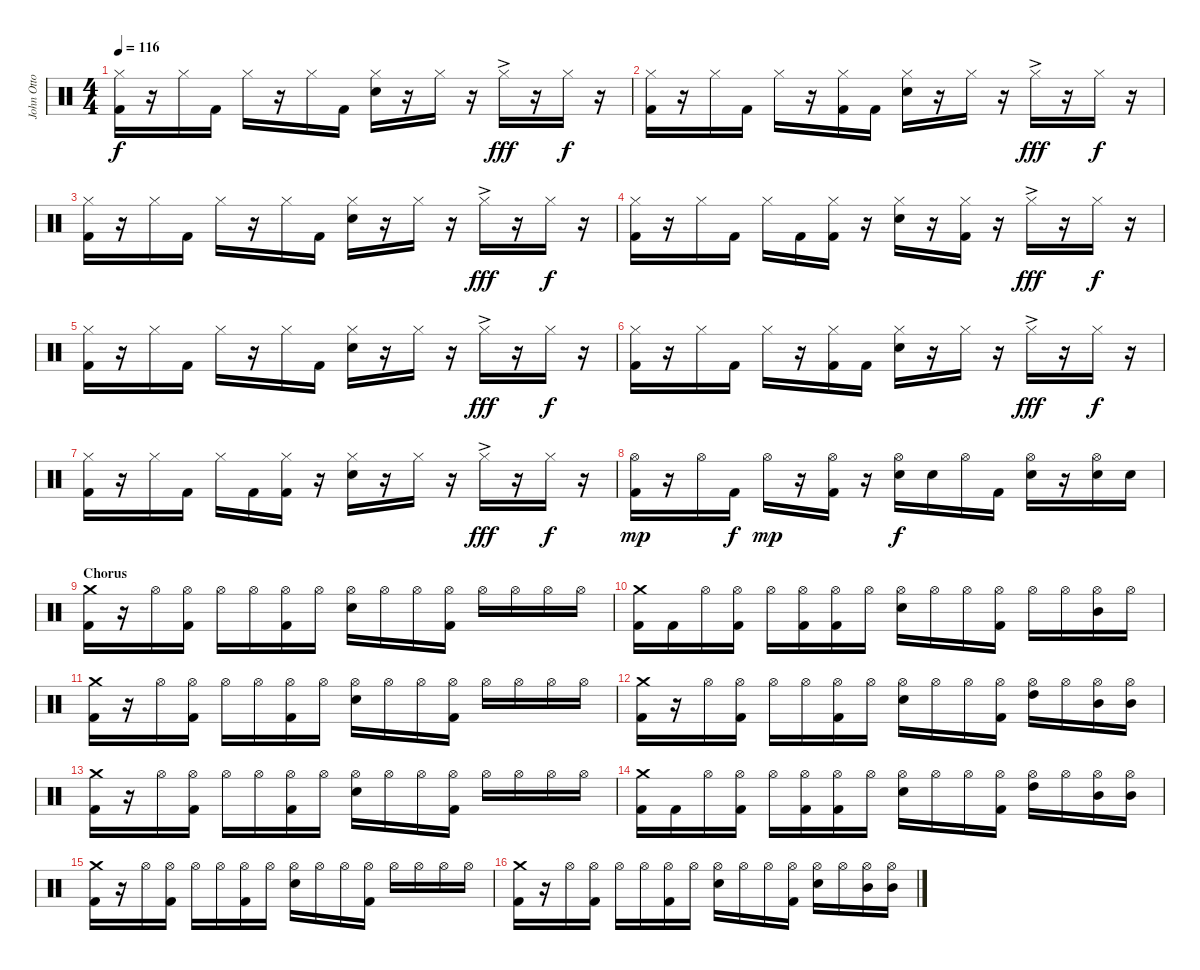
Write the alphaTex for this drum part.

\track ("John Otto - Drums" "John Otto ") {instrument percussion}
\staff {score}
\articulation defaults
\ts (4 4)
\tempo 116
\clef neutral
\ks c
("Hi-Hat (closed)" "Kick (hit) 2").16{dy f} r.16 "Hi-Hat (closed)".16 "Kick (hit) 2".16 "Hi-Hat (closed)".16 r.16 "Hi-Hat (closed)".16 "Kick (hit) 2".16 ("Hi-Hat (closed)" "Electric Snare (hit)").16 r.16 "Hi-Hat (closed)".16 r.16 "Hi-Hat (closed)"{ac}.16{dy fff} r.16 "Hi-Hat (closed)".16{dy f} r.16 |
("Hi-Hat (closed)" "Kick (hit) 2").16 r.16 "Hi-Hat (closed)".16 "Kick (hit) 2".16 "Hi-Hat (closed)".16 r.16 ("Hi-Hat (closed)" "Kick (hit) 2").16 "Kick (hit) 2".16 ("Hi-Hat (closed)" "Electric Snare (hit)").16 r.16 "Hi-Hat (closed)".16 r.16 "Hi-Hat (closed)"{ac}.16{dy fff} r.16 "Hi-Hat (closed)".16{dy f} r.16 |
("Hi-Hat (closed)" "Kick (hit) 2").16 r.16 "Hi-Hat (closed)".16 "Kick (hit) 2".16 "Hi-Hat (closed)".16 r.16 "Hi-Hat (closed)".16 "Kick (hit) 2".16 ("Hi-Hat (closed)" "Electric Snare (hit)").16 r.16 "Hi-Hat (closed)".16 r.16 "Hi-Hat (closed)"{ac}.16{dy fff} r.16 "Hi-Hat (closed)".16{dy f} r.16 |
("Hi-Hat (closed)" "Kick (hit) 2").16 r.16 "Hi-Hat (closed)".16 "Kick (hit) 2".16 "Hi-Hat (closed)".16 "Kick (hit) 2".16 ("Hi-Hat (closed)" "Kick (hit) 2").16 r.16 ("Hi-Hat (closed)" "Electric Snare (hit)").16 r.16 ("Hi-Hat (closed)" "Kick (hit) 2").16 r.16 "Hi-Hat (closed)"{ac}.16{dy fff} r.16 "Hi-Hat (closed)".16{dy f} r.16 |
("Hi-Hat (closed)" "Kick (hit) 2").16 r.16 "Hi-Hat (closed)".16 "Kick (hit) 2".16 "Hi-Hat (closed)".16 r.16 "Hi-Hat (closed)".16 "Kick (hit) 2".16 ("Hi-Hat (closed)" "Electric Snare (hit)").16 r.16 "Hi-Hat (closed)".16 r.16 "Hi-Hat (closed)"{ac}.16{dy fff} r.16 "Hi-Hat (closed)".16{dy f} r.16 |
("Hi-Hat (closed)" "Kick (hit) 2").16 r.16 "Hi-Hat (closed)".16 "Kick (hit) 2".16 "Hi-Hat (closed)".16 r.16 ("Hi-Hat (closed)" "Kick (hit) 2").16 "Kick (hit) 2".16 ("Hi-Hat (closed)" "Electric Snare (hit)").16 r.16 "Hi-Hat (closed)".16 r.16 "Hi-Hat (closed)"{ac}.16{dy fff} r.16 "Hi-Hat (closed)".16{dy f} r.16 |
("Hi-Hat (closed)" "Kick (hit) 2").16 r.16 "Hi-Hat (closed)".16 "Kick (hit) 2".16 "Hi-Hat (closed)".16 "Kick (hit) 2".16 ("Hi-Hat (closed)" "Kick (hit) 2").16 r.16 ("Hi-Hat (closed)" "Electric Snare (hit)").16 r.16 "Hi-Hat (closed)".16 r.16 "Hi-Hat (closed)"{ac}.16{dy fff} r.16 "Hi-Hat (closed)".16{dy f} r.16 |
("Hi-Hat (open)" "Kick (hit) 2").16{dy mp} r.16 "Hi-Hat (open)".16 "Kick (hit) 2".16{dy f} "Hi-Hat (open)".16{dy mp} r.16 ("Hi-Hat (open)" "Kick (hit) 2").16 r.16 ("Hi-Hat (open)" "Electric Snare (hit)").16{dy f} "Electric Snare (hit)".16 "Hi-Hat (open)".16 "Kick (hit) 2".16 ("Hi-Hat (open)" "Electric Snare (hit)").16 r.16 ("Hi-Hat (open)" "Electric Snare (hit)").16 "Electric Snare (hit)".16 |
\section ("" "Chorus")
("Crash medium (hit)" "Kick (hit) 2").16 r.16 "Hi-Hat (open)".16 ("Hi-Hat (open)" "Kick (hit) 2").16 "Hi-Hat (open)".16 "Hi-Hat (open)".16 ("Hi-Hat (open)" "Kick (hit) 2").16 "Hi-Hat (open)".16 ("Hi-Hat (open)" "Electric Snare (hit)").16 "Hi-Hat (open)".16 "Hi-Hat (open)".16 ("Hi-Hat (open)" "Kick (hit) 2").16 "Hi-Hat (open)".16 "Hi-Hat (open)".16 "Hi-Hat (open)".16 "Hi-Hat (open)".16 |
("Crash medium (hit)" "Kick (hit) 2").16 "Kick (hit) 2".16 "Hi-Hat (open)".16 ("Hi-Hat (open)" "Kick (hit) 2").16 "Hi-Hat (open)".16 ("Hi-Hat (open)" "Kick (hit) 2").16 ("Hi-Hat (open)" "Kick (hit) 2").16 "Hi-Hat (open)".16 ("Hi-Hat (open)" "Electric Snare (hit)").16 "Hi-Hat (open)".16 "Hi-Hat (open)".16 ("Hi-Hat (open)" "Kick (hit) 2").16 "Hi-Hat (open)".16 "Hi-Hat (open)".16 ("Hi-Hat (open)" "Mid Tom (hit)").16 "Hi-Hat (open)".16 |
("Crash medium (hit)" "Kick (hit) 2").16 r.16 "Hi-Hat (open)".16 ("Hi-Hat (open)" "Kick (hit) 2").16 "Hi-Hat (open)".16 "Hi-Hat (open)".16 ("Hi-Hat (open)" "Kick (hit) 2").16 "Hi-Hat (open)".16 ("Hi-Hat (open)" "Electric Snare (hit)").16 "Hi-Hat (open)".16 "Hi-Hat (open)".16 ("Hi-Hat (open)" "Kick (hit) 2").16 "Hi-Hat (open)".16 "Hi-Hat (open)".16 "Hi-Hat (open)".16 "Hi-Hat (open)".16 |
("Crash medium (hit)" "Kick (hit) 2").16 r.16 "Hi-Hat (open)".16 ("Hi-Hat (open)" "Kick (hit) 2").16 "Hi-Hat (open)".16 "Hi-Hat (open)".16 ("Hi-Hat (open)" "Kick (hit) 2").16 "Hi-Hat (open)".16 ("Hi-Hat (open)" "Electric Snare (hit)").16 "Hi-Hat (open)".16 "Hi-Hat (open)".16 ("Hi-Hat (open)" "Kick (hit) 2").16 ("Hi-Hat (open)" "High Tom (hit)").16 "Hi-Hat (open)".16 ("Hi-Hat (open)" "Mid Tom (hit)").16 ("Hi-Hat (open)" "Mid Tom (hit)").16 |
("Crash medium (hit)" "Kick (hit) 2").16 r.16 "Hi-Hat (open)".16 ("Hi-Hat (open)" "Kick (hit) 2").16 "Hi-Hat (open)".16 "Hi-Hat (open)".16 ("Hi-Hat (open)" "Kick (hit) 2").16 "Hi-Hat (open)".16 ("Hi-Hat (open)" "Electric Snare (hit)").16 "Hi-Hat (open)".16 "Hi-Hat (open)".16 ("Hi-Hat (open)" "Kick (hit) 2").16 "Hi-Hat (open)".16 "Hi-Hat (open)".16 "Hi-Hat (open)".16 "Hi-Hat (open)".16 |
("Crash medium (hit)" "Kick (hit) 2").16 "Kick (hit) 2".16 "Hi-Hat (open)".16 ("Hi-Hat (open)" "Kick (hit) 2").16 "Hi-Hat (open)".16 ("Hi-Hat (open)" "Kick (hit) 2").16 ("Hi-Hat (open)" "Kick (hit) 2").16 "Hi-Hat (open)".16 ("Hi-Hat (open)" "Electric Snare (hit)").16 "Hi-Hat (open)".16 "Hi-Hat (open)".16 ("Hi-Hat (open)" "Kick (hit) 2").16 ("Hi-Hat (open)" "High Tom (hit)").16 "Hi-Hat (open)".16 ("Hi-Hat (open)" "Mid Tom (hit)").16 ("Hi-Hat (open)" "Mid Tom (hit)").16 |
("Crash medium (hit)" "Kick (hit) 2").16 r.16 "Hi-Hat (open)".16 ("Hi-Hat (open)" "Kick (hit) 2").16 "Hi-Hat (open)".16 "Hi-Hat (open)".16 ("Hi-Hat (open)" "Kick (hit) 2").16 "Hi-Hat (open)".16 ("Hi-Hat (open)" "Electric Snare (hit)").16 "Hi-Hat (open)".16 "Hi-Hat (open)".16 ("Hi-Hat (open)" "Kick (hit) 2").16 "Hi-Hat (open)".16 "Hi-Hat (open)".16 "Hi-Hat (open)".16 "Hi-Hat (open)".16 |
("Crash medium (hit)" "Kick (hit) 2").16 r.16 "Hi-Hat (open)".16 ("Hi-Hat (open)" "Kick (hit) 2").16 "Hi-Hat (open)".16 "Hi-Hat (open)".16 ("Hi-Hat (open)" "Kick (hit) 2").16 "Hi-Hat (open)".16 ("Hi-Hat (open)" "Electric Snare (hit)").16 "Hi-Hat (open)".16 "Hi-Hat (open)".16 ("Hi-Hat (open)" "Kick (hit) 2").16 ("Hi-Hat (open)" "Electric Snare (hit)").16 "Hi-Hat (open)".16 ("Hi-Hat (open)" "Mid Tom (hit)").16 ("Hi-Hat (open)" "Mid Tom (hit)").16
